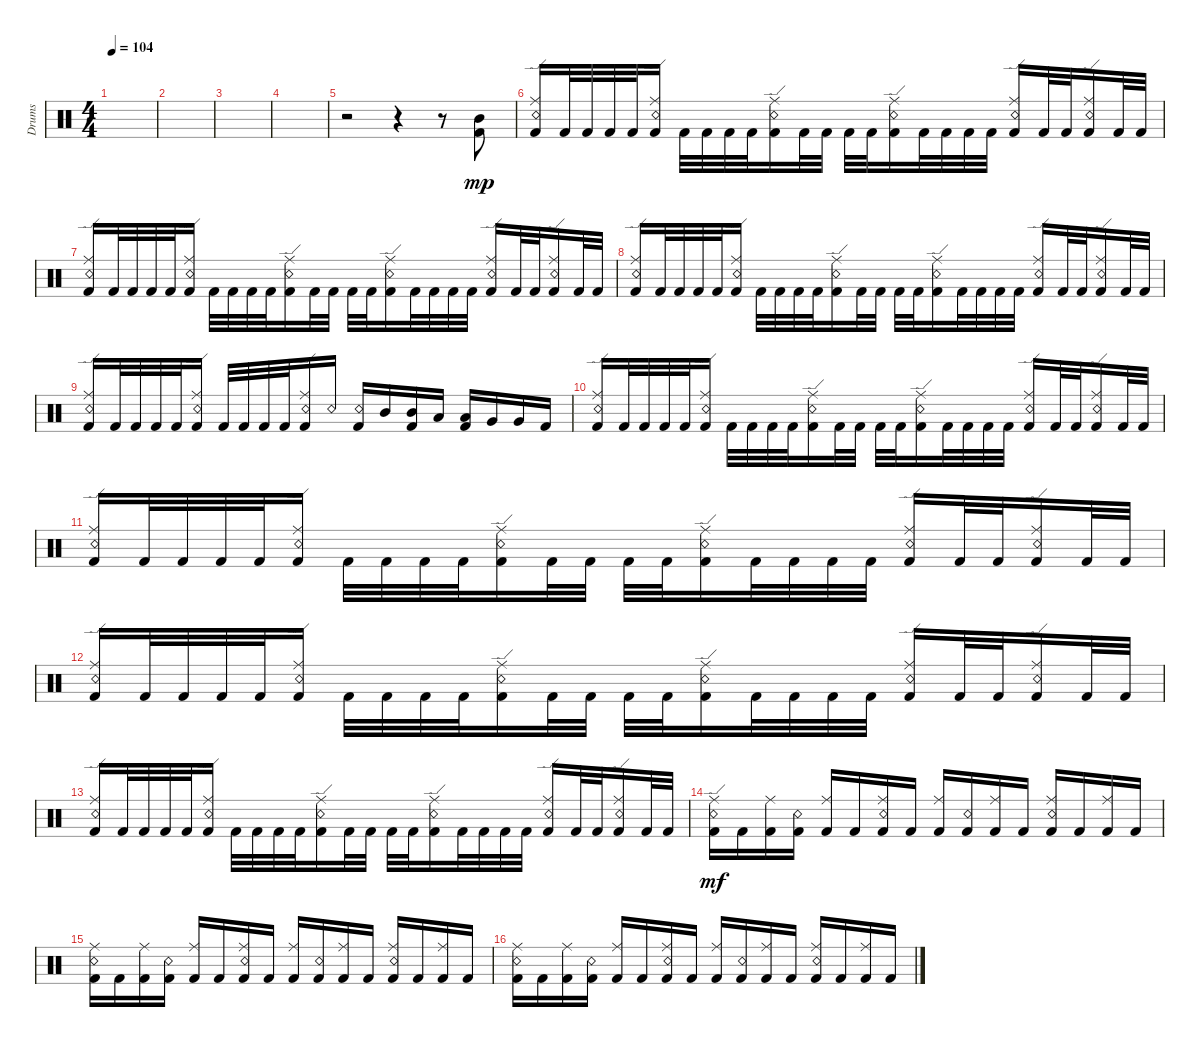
\defaultSystemsLayout 4
\bracketExtendMode groupsimilarinstruments
\otherSystemsTrackNameOrientation horizontal
\track ("Martin Lopez" "Drums") {instrument percussion}
\staff {score}
\articulation defaults
\ts (4 4)
\tempo 104
\clef neutral
\ks c
|
|
|
|
r.2{beam Down} r.4{beam Down} r.8{beam Down} ("Kick (hit) 2" "Mid Tom (hit)").8{dy mp beam Up} |
("Kick (hit) 2" "Ride (edge)" "Snare (rim shot)").16{beam Up} "Kick (hit) 2".32{beam Up} "Kick (hit) 2".32{beam Up} "Kick (hit) 2".32{beam Up} "Kick (hit) 2".32{beam Up} ("Kick (hit) 2" "Ride (edge)" "Snare (rim shot)").16{beam Up} "Kick (hit) 2".32{beam Down} "Kick (hit) 2".32{beam Down} "Kick (hit) 2".32{beam Down} "Kick (hit) 2".32{beam Down} ("Kick (hit) 2" "Ride (edge)" "Snare (rim shot)").16{beam Down} "Kick (hit) 2".32{beam Down} "Kick (hit) 2".32{beam Down} "Kick (hit) 2".32{beam Down} "Kick (hit) 2".32{beam Down} ("Kick (hit) 2" "Ride (edge)" "Snare (rim shot)").16{beam Down} "Kick (hit) 2".32{beam Down} "Kick (hit) 2".32{beam Down} "Kick (hit) 2".32{beam Down} "Kick (hit) 2".32{beam Down} ("Kick (hit) 2" "Ride (edge)" "Snare (rim shot)").16{beam Up} "Kick (hit) 2".32{beam Up} "Kick (hit) 2".32{beam Up} ("Kick (hit) 2" "Ride (edge)" "Snare (rim shot)").16{beam Up} "Kick (hit) 2".32{beam Up} "Kick (hit) 2".32{beam Up} |
("Kick (hit) 2" "Ride (edge)" "Snare (rim shot)").16{beam Up} "Kick (hit) 2".32{beam Up} "Kick (hit) 2".32{beam Up} "Kick (hit) 2".32{beam Up} "Kick (hit) 2".32{beam Up} ("Kick (hit) 2" "Ride (edge)" "Snare (rim shot)").16{beam Up} "Kick (hit) 2".32{beam Down} "Kick (hit) 2".32{beam Down} "Kick (hit) 2".32{beam Down} "Kick (hit) 2".32{beam Down} ("Kick (hit) 2" "Ride (edge)" "Snare (rim shot)").16{beam Down} "Kick (hit) 2".32{beam Down} "Kick (hit) 2".32{beam Down} "Kick (hit) 2".32{beam Down} "Kick (hit) 2".32{beam Down} ("Kick (hit) 2" "Ride (edge)" "Snare (rim shot)").16{beam Down} "Kick (hit) 2".32{beam Down} "Kick (hit) 2".32{beam Down} "Kick (hit) 2".32{beam Down} "Kick (hit) 2".32{beam Down} ("Kick (hit) 2" "Ride (edge)" "Snare (rim shot)").16{beam Up} "Kick (hit) 2".32{beam Up} "Kick (hit) 2".32{beam Up} ("Kick (hit) 2" "Ride (edge)" "Snare (rim shot)").16{beam Up} "Kick (hit) 2".32{beam Up} "Kick (hit) 2".32{beam Up} |
("Kick (hit) 2" "Ride (edge)" "Snare (rim shot)").16{beam Up} "Kick (hit) 2".32{beam Up} "Kick (hit) 2".32{beam Up} "Kick (hit) 2".32{beam Up} "Kick (hit) 2".32{beam Up} ("Kick (hit) 2" "Ride (edge)" "Snare (rim shot)").16{beam Up} "Kick (hit) 2".32{beam Down} "Kick (hit) 2".32{beam Down} "Kick (hit) 2".32{beam Down} "Kick (hit) 2".32{beam Down} ("Kick (hit) 2" "Ride (edge)" "Snare (rim shot)").16{beam Down} "Kick (hit) 2".32{beam Down} "Kick (hit) 2".32{beam Down} "Kick (hit) 2".32{beam Down} "Kick (hit) 2".32{beam Down} ("Kick (hit) 2" "Ride (edge)" "Snare (rim shot)").16{beam Down} "Kick (hit) 2".32{beam Down} "Kick (hit) 2".32{beam Down} "Kick (hit) 2".32{beam Down} "Kick (hit) 2".32{beam Down} ("Kick (hit) 2" "Ride (edge)" "Snare (rim shot)").16{beam Up} "Kick (hit) 2".32{beam Up} "Kick (hit) 2".32{beam Up} ("Kick (hit) 2" "Ride (edge)" "Snare (rim shot)").16{beam Up} "Kick (hit) 2".32{beam Up} "Kick (hit) 2".32{beam Up} |
("Kick (hit) 2" "Ride (edge)" "Snare (rim shot)").16{beam Up} "Kick (hit) 2".32{beam Up} "Kick (hit) 2".32{beam Up} "Kick (hit) 2".32{beam Up} "Kick (hit) 2".32{beam Up} ("Kick (hit) 2" "Ride (edge)" "Snare (rim shot)").16{beam Up} "Kick (hit) 2".32{beam Up} "Kick (hit) 2".32{beam Up} "Kick (hit) 2".32{beam Up} "Kick (hit) 2".32{beam Up} ("Kick (hit) 2" "Ride (edge)" "Snare (rim shot)").16{beam Up} "Snare (rim shot)".16{beam Up} ("Snare (rim shot)" "Kick (hit) 2").16{beam Up} "Mid Tom (hit)".16{beam Up} ("Mid Tom (hit)" "Kick (hit) 2").16{beam Up} "Low Tom (hit)".16{beam Up} ("Low Tom (hit)" "Kick (hit) 2").16{beam Up} "Very Low Tom (hit)".16{beam Up} "Very Low Tom (hit)".16{beam Up} "Kick (hit) 2".16{beam Up} |
("Kick (hit) 2" "Ride (edge)" "Snare (rim shot)").16{beam Up} "Kick (hit) 2".32{beam Up} "Kick (hit) 2".32{beam Up} "Kick (hit) 2".32{beam Up} "Kick (hit) 2".32{beam Up} ("Kick (hit) 2" "Ride (edge)" "Snare (rim shot)").16{beam Up} "Kick (hit) 2".32{beam Down} "Kick (hit) 2".32{beam Down} "Kick (hit) 2".32{beam Down} "Kick (hit) 2".32{beam Down} ("Kick (hit) 2" "Ride (edge)" "Snare (rim shot)").16{beam Down} "Kick (hit) 2".32{beam Down} "Kick (hit) 2".32{beam Down} "Kick (hit) 2".32{beam Down} "Kick (hit) 2".32{beam Down} ("Kick (hit) 2" "Ride (edge)" "Snare (rim shot)").16{beam Down} "Kick (hit) 2".32{beam Down} "Kick (hit) 2".32{beam Down} "Kick (hit) 2".32{beam Down} "Kick (hit) 2".32{beam Down} ("Kick (hit) 2" "Ride (edge)" "Snare (rim shot)").16{beam Up} "Kick (hit) 2".32{beam Up} "Kick (hit) 2".32{beam Up} ("Kick (hit) 2" "Ride (edge)" "Snare (rim shot)").16{beam Up} "Kick (hit) 2".32{beam Up} "Kick (hit) 2".32{beam Up} |
("Kick (hit) 2" "Ride (edge)" "Snare (rim shot)").16{beam Up} "Kick (hit) 2".32{beam Up} "Kick (hit) 2".32{beam Up} "Kick (hit) 2".32{beam Up} "Kick (hit) 2".32{beam Up} ("Kick (hit) 2" "Ride (edge)" "Snare (rim shot)").16{beam Up} "Kick (hit) 2".32{beam Down} "Kick (hit) 2".32{beam Down} "Kick (hit) 2".32{beam Down} "Kick (hit) 2".32{beam Down} ("Kick (hit) 2" "Ride (edge)" "Snare (rim shot)").16{beam Down} "Kick (hit) 2".32{beam Down} "Kick (hit) 2".32{beam Down} "Kick (hit) 2".32{beam Down} "Kick (hit) 2".32{beam Down} ("Kick (hit) 2" "Ride (edge)" "Snare (rim shot)").16{beam Down} "Kick (hit) 2".32{beam Down} "Kick (hit) 2".32{beam Down} "Kick (hit) 2".32{beam Down} "Kick (hit) 2".32{beam Down} ("Kick (hit) 2" "Ride (edge)" "Snare (rim shot)").16{beam Up} "Kick (hit) 2".32{beam Up} "Kick (hit) 2".32{beam Up} ("Kick (hit) 2" "Ride (edge)" "Snare (rim shot)").16{beam Up} "Kick (hit) 2".32{beam Up} "Kick (hit) 2".32{beam Up} |
("Kick (hit) 2" "Ride (edge)" "Snare (rim shot)").16{beam Up} "Kick (hit) 2".32{beam Up} "Kick (hit) 2".32{beam Up} "Kick (hit) 2".32{beam Up} "Kick (hit) 2".32{beam Up} ("Kick (hit) 2" "Ride (edge)" "Snare (rim shot)").16{beam Up} "Kick (hit) 2".32{beam Down} "Kick (hit) 2".32{beam Down} "Kick (hit) 2".32{beam Down} "Kick (hit) 2".32{beam Down} ("Kick (hit) 2" "Ride (edge)" "Snare (rim shot)").16{beam Down} "Kick (hit) 2".32{beam Down} "Kick (hit) 2".32{beam Down} "Kick (hit) 2".32{beam Down} "Kick (hit) 2".32{beam Down} ("Kick (hit) 2" "Ride (edge)" "Snare (rim shot)").16{beam Down} "Kick (hit) 2".32{beam Down} "Kick (hit) 2".32{beam Down} "Kick (hit) 2".32{beam Down} "Kick (hit) 2".32{beam Down} ("Kick (hit) 2" "Ride (edge)" "Snare (rim shot)").16{beam Up} "Kick (hit) 2".32{beam Up} "Kick (hit) 2".32{beam Up} ("Kick (hit) 2" "Ride (edge)" "Snare (rim shot)").16{beam Up} "Kick (hit) 2".32{beam Up} "Kick (hit) 2".32{beam Up} |
("Kick (hit) 2" "Ride (edge)" "Snare (rim shot)").16{beam Up} "Kick (hit) 2".32{beam Up} "Kick (hit) 2".32{beam Up} "Kick (hit) 2".32{beam Up} "Kick (hit) 2".32{beam Up} ("Kick (hit) 2" "Ride (edge)" "Snare (rim shot)").16{beam Up} "Kick (hit) 2".32{beam Down} "Kick (hit) 2".32{beam Down} "Kick (hit) 2".32{beam Down} "Kick (hit) 2".32{beam Down} ("Kick (hit) 2" "Ride (edge)" "Snare (rim shot)").16{beam Down} "Kick (hit) 2".32{beam Down} "Kick (hit) 2".32{beam Down} "Kick (hit) 2".32{beam Down} "Kick (hit) 2".32{beam Down} ("Kick (hit) 2" "Ride (edge)" "Snare (rim shot)").16{beam Down} "Kick (hit) 2".32{beam Down} "Kick (hit) 2".32{beam Down} "Kick (hit) 2".32{beam Down} "Kick (hit) 2".32{beam Down} ("Kick (hit) 2" "Ride (edge)" "Snare (rim shot)").16{beam Up} "Kick (hit) 2".32{beam Up} "Kick (hit) 2".32{beam Up} ("Kick (hit) 2" "Ride (edge)" "Snare (rim shot)").16{beam Up} "Kick (hit) 2".32{beam Up} "Kick (hit) 2".32{beam Up} |
("Kick (hit) 2" "Snare (rim shot)" "Ride (edge)").16{dy mf beam Down} "Kick (hit) 2".16{beam Down} ("Kick (hit) 2" "Ride (middle)").16{beam Down} ("Kick (hit) 2" "Snare (rim shot)").16{beam Down} ("Kick (hit) 2" "Ride (middle)").16{beam Up} "Kick (hit) 2".16{beam Up} ("Kick (hit) 2" "Snare (rim shot)" "Ride (middle)").16{beam Up} "Kick (hit) 2".16{beam Up} ("Kick (hit) 2" "Ride (middle)").16{beam Up} ("Kick (hit) 2" "Snare (rim shot)").16{beam Up} ("Kick (hit) 2" "Ride (middle)").16{beam Up} "Kick (hit) 2".16{beam Up} ("Kick (hit) 2" "Snare (rim shot)" "Ride (middle)").16{beam Up} "Kick (hit) 2".16{beam Up} ("Kick (hit) 2" "Ride (middle)").16{beam Up} "Kick (hit) 2".16{beam Up} |
("Kick (hit) 2" "Snare (rim shot)" "Ride (middle)").16{beam Down} "Kick (hit) 2".16{beam Down} ("Kick (hit) 2" "Ride (middle)").16{beam Down} ("Kick (hit) 2" "Snare (rim shot)").16{beam Down} ("Kick (hit) 2" "Ride (middle)").16{beam Up} "Kick (hit) 2".16{beam Up} ("Kick (hit) 2" "Snare (rim shot)" "Ride (middle)").16{beam Up} "Kick (hit) 2".16{beam Up} ("Kick (hit) 2" "Ride (middle)").16{beam Up} ("Kick (hit) 2" "Snare (rim shot)").16{beam Up} ("Kick (hit) 2" "Ride (middle)").16{beam Up} "Kick (hit) 2".16{beam Up} ("Kick (hit) 2" "Snare (rim shot)" "Ride (middle)").16{beam Up} "Kick (hit) 2".16{beam Up} ("Kick (hit) 2" "Ride (middle)").16{beam Up} "Kick (hit) 2".16{beam Up} |
("Kick (hit) 2" "Snare (rim shot)" "Ride (middle)").16{beam Down} "Kick (hit) 2".16{beam Down} ("Kick (hit) 2" "Ride (middle)").16{beam Down} ("Kick (hit) 2" "Snare (rim shot)").16{beam Down} ("Kick (hit) 2" "Ride (middle)").16{beam Up} "Kick (hit) 2".16{beam Up} ("Kick (hit) 2" "Snare (rim shot)" "Ride (middle)").16{beam Up} "Kick (hit) 2".16{beam Up} ("Kick (hit) 2" "Ride (middle)").16{beam Up} ("Kick (hit) 2" "Snare (rim shot)").16{beam Up} ("Kick (hit) 2" "Ride (middle)").16{beam Up} "Kick (hit) 2".16{beam Up} ("Kick (hit) 2" "Snare (rim shot)" "Ride (middle)").16{beam Up} "Kick (hit) 2".16{beam Up} ("Kick (hit) 2" "Ride (middle)").16{beam Up} "Kick (hit) 2".16{beam Up}
